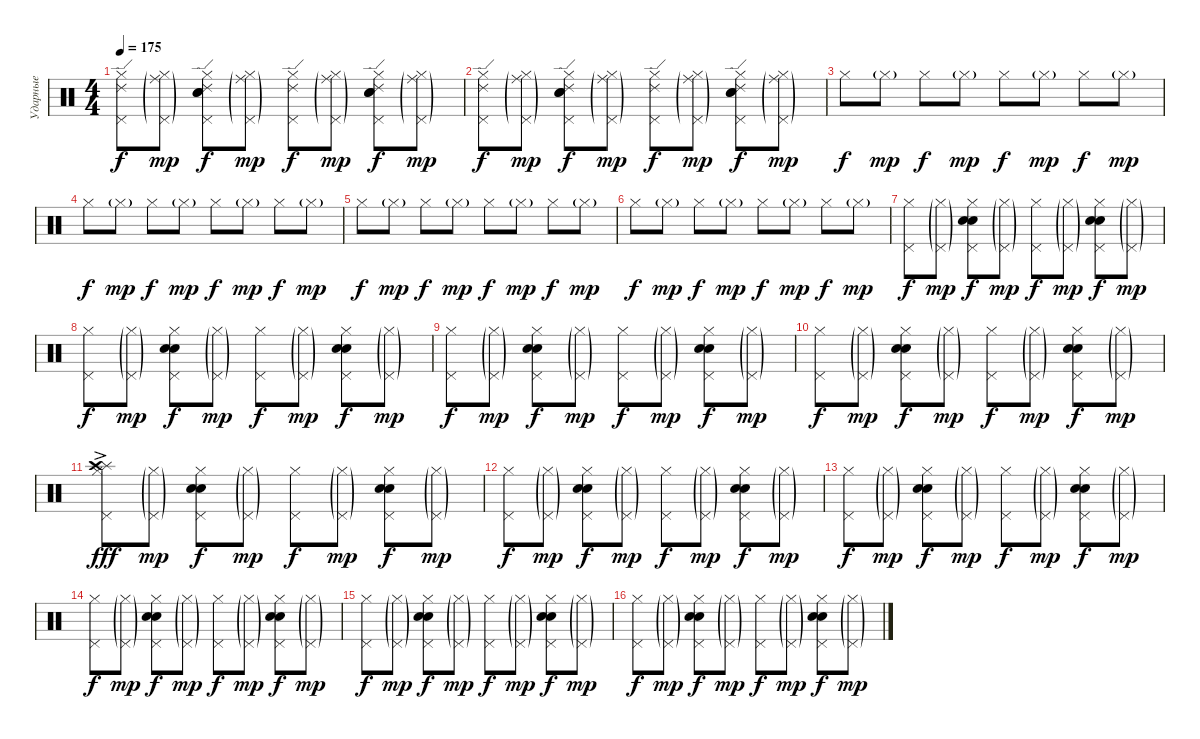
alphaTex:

\track ("Ударные" "Ударные") {instrument percussion}
\staff {score}
\articulation defaults
\ts (4 4)
\tempo 175
\clef neutral
\ks c
("Ride (edge) 2" "Hi-Hat (closed)" "Pedal Hi-Hat (hit)").8{dy f} ("Ride (middle)"{g} "Hi-Hat (closed)"{g} "Pedal Hi-Hat (hit)"{g}).8{dy mp} ("Ride (edge) 2" "Hi-Hat (closed)" "Pedal Hi-Hat (hit)" "Snare (hit) 2" "Electric Snare (hit)").8{dy f} ("Ride (middle)"{g} "Hi-Hat (closed)"{g} "Pedal Hi-Hat (hit)"{g}).8{dy mp} ("Ride (edge) 2" "Hi-Hat (closed)" "Pedal Hi-Hat (hit)").8{dy f} ("Ride (middle)"{g} "Hi-Hat (closed)"{g} "Pedal Hi-Hat (hit)"{g}).8{dy mp} ("Ride (edge) 2" "Hi-Hat (closed)" "Pedal Hi-Hat (hit)" "Snare (hit) 2" "Electric Snare (hit)").8{dy f} ("Ride (middle)"{g} "Hi-Hat (closed)"{g} "Pedal Hi-Hat (hit)"{g}).8{dy mp} |
("Ride (edge) 2" "Hi-Hat (closed)" "Pedal Hi-Hat (hit)").8{dy f} ("Ride (middle)"{g} "Hi-Hat (closed)"{g} "Pedal Hi-Hat (hit)"{g}).8{dy mp} ("Ride (edge) 2" "Hi-Hat (closed)" "Pedal Hi-Hat (hit)" "Snare (hit) 2" "Electric Snare (hit)").8{dy f} ("Ride (middle)"{g} "Hi-Hat (closed)"{g} "Pedal Hi-Hat (hit)"{g}).8{dy mp} ("Ride (edge) 2" "Hi-Hat (closed)" "Pedal Hi-Hat (hit)").8{dy f} ("Ride (middle)"{g} "Hi-Hat (closed)"{g} "Pedal Hi-Hat (hit)"{g}).8{dy mp} ("Ride (edge) 2" "Hi-Hat (closed)" "Pedal Hi-Hat (hit)" "Snare (hit) 2" "Electric Snare (hit)").8{dy f} ("Ride (middle)"{g} "Hi-Hat (closed)"{g} "Pedal Hi-Hat (hit)"{g}).8{dy mp} |
"Hi-Hat (closed)".8{dy f volume 5} "Hi-Hat (closed)"{g}.8{dy mp} "Hi-Hat (closed)".8{dy f} "Hi-Hat (closed)"{g}.8{dy mp} "Hi-Hat (closed)".8{dy f} "Hi-Hat (closed)"{g}.8{dy mp} "Hi-Hat (closed)".8{dy f} "Hi-Hat (closed)"{g}.8{dy mp} |
"Hi-Hat (closed)".8{dy f} "Hi-Hat (closed)"{g}.8{dy mp} "Hi-Hat (closed)".8{dy f} "Hi-Hat (closed)"{g}.8{dy mp} "Hi-Hat (closed)".8{dy f} "Hi-Hat (closed)"{g}.8{dy mp} "Hi-Hat (closed)".8{dy f} "Hi-Hat (closed)"{g}.8{dy mp} |
"Hi-Hat (closed)".8{dy f} "Hi-Hat (closed)"{g}.8{dy mp} "Hi-Hat (closed)".8{dy f} "Hi-Hat (closed)"{g}.8{dy mp} "Hi-Hat (closed)".8{dy f} "Hi-Hat (closed)"{g}.8{dy mp} "Hi-Hat (closed)".8{dy f} "Hi-Hat (closed)"{g}.8{dy mp} |
"Hi-Hat (closed)".8{dy f} "Hi-Hat (closed)"{g}.8{dy mp} "Hi-Hat (closed)".8{dy f} "Hi-Hat (closed)"{g}.8{dy mp} "Hi-Hat (closed)".8{dy f} "Hi-Hat (closed)"{g}.8{dy mp} "Hi-Hat (closed)".8{dy f} "Hi-Hat (closed)"{g}.8{dy mp} |
("Hi-Hat (closed)" "Pedal Hi-Hat (hit)").8{dy f volume 12} ("Hi-Hat (closed)"{g} "Pedal Hi-Hat (hit)"{g}).8{dy mp} ("Hi-Hat (closed)" "Pedal Hi-Hat (hit)" "Snare (hit) 2" "Electric Snare (hit)").8{dy f} ("Hi-Hat (closed)"{g} "Pedal Hi-Hat (hit)"{g}).8{dy mp} ("Hi-Hat (closed)" "Pedal Hi-Hat (hit)").8{dy f} ("Hi-Hat (closed)"{g} "Pedal Hi-Hat (hit)"{g}).8{dy mp} ("Hi-Hat (closed)" "Pedal Hi-Hat (hit)" "Snare (hit) 2" "Electric Snare (hit)").8{dy f} ("Hi-Hat (closed)"{g} "Pedal Hi-Hat (hit)"{g}).8{dy mp} |
("Hi-Hat (closed)" "Pedal Hi-Hat (hit)").8{dy f} ("Hi-Hat (closed)"{g} "Pedal Hi-Hat (hit)"{g}).8{dy mp} ("Hi-Hat (closed)" "Pedal Hi-Hat (hit)" "Snare (hit) 2" "Electric Snare (hit)").8{dy f} ("Hi-Hat (closed)"{g} "Pedal Hi-Hat (hit)"{g}).8{dy mp} ("Hi-Hat (closed)" "Pedal Hi-Hat (hit)").8{dy f} ("Hi-Hat (closed)"{g} "Pedal Hi-Hat (hit)"{g}).8{dy mp} ("Hi-Hat (closed)" "Pedal Hi-Hat (hit)" "Snare (hit) 2" "Electric Snare (hit)").8{dy f} ("Hi-Hat (closed)"{g} "Pedal Hi-Hat (hit)"{g}).8{dy mp} |
("Hi-Hat (closed)" "Pedal Hi-Hat (hit)").8{dy f} ("Hi-Hat (closed)"{g} "Pedal Hi-Hat (hit)"{g}).8{dy mp} ("Hi-Hat (closed)" "Pedal Hi-Hat (hit)" "Snare (hit) 2" "Electric Snare (hit)").8{dy f} ("Hi-Hat (closed)"{g} "Pedal Hi-Hat (hit)"{g}).8{dy mp} ("Hi-Hat (closed)" "Pedal Hi-Hat (hit)").8{dy f} ("Hi-Hat (closed)"{g} "Pedal Hi-Hat (hit)"{g}).8{dy mp} ("Hi-Hat (closed)" "Pedal Hi-Hat (hit)" "Snare (hit) 2" "Electric Snare (hit)").8{dy f} ("Hi-Hat (closed)"{g} "Pedal Hi-Hat (hit)"{g}).8{dy mp} |
("Hi-Hat (closed)" "Pedal Hi-Hat (hit)").8{dy f} ("Hi-Hat (closed)"{g} "Pedal Hi-Hat (hit)"{g}).8{dy mp} ("Hi-Hat (closed)" "Pedal Hi-Hat (hit)" "Snare (hit) 2" "Electric Snare (hit)").8{dy f} ("Hi-Hat (closed)"{g} "Pedal Hi-Hat (hit)"{g}).8{dy mp} ("Hi-Hat (closed)" "Pedal Hi-Hat (hit)").8{dy f} ("Hi-Hat (closed)"{g} "Pedal Hi-Hat (hit)"{g}).8{dy mp} ("Hi-Hat (closed)" "Pedal Hi-Hat (hit)" "Snare (hit) 2" "Electric Snare (hit)").8{dy f} ("Hi-Hat (closed)"{g} "Pedal Hi-Hat (hit)"{g}).8{dy mp} |
("Hi-Hat (closed)" "Pedal Hi-Hat (hit)" "Splash (hit)"{ac} "Crash high (hit)"{ac}).8{dy fff} ("Hi-Hat (closed)"{g} "Pedal Hi-Hat (hit)"{g}).8{dy mp} ("Hi-Hat (closed)" "Pedal Hi-Hat (hit)" "Snare (hit) 2" "Electric Snare (hit)").8{dy f} ("Hi-Hat (closed)"{g} "Pedal Hi-Hat (hit)"{g}).8{dy mp} ("Hi-Hat (closed)" "Pedal Hi-Hat (hit)").8{dy f} ("Hi-Hat (closed)"{g} "Pedal Hi-Hat (hit)"{g}).8{dy mp} ("Hi-Hat (closed)" "Pedal Hi-Hat (hit)" "Snare (hit) 2" "Electric Snare (hit)").8{dy f} ("Hi-Hat (closed)"{g} "Pedal Hi-Hat (hit)"{g}).8{dy mp} |
("Hi-Hat (closed)" "Pedal Hi-Hat (hit)").8{dy f} ("Hi-Hat (closed)"{g} "Pedal Hi-Hat (hit)"{g}).8{dy mp} ("Hi-Hat (closed)" "Pedal Hi-Hat (hit)" "Snare (hit) 2" "Electric Snare (hit)").8{dy f} ("Hi-Hat (closed)"{g} "Pedal Hi-Hat (hit)"{g}).8{dy mp} ("Hi-Hat (closed)" "Pedal Hi-Hat (hit)").8{dy f} ("Hi-Hat (closed)"{g} "Pedal Hi-Hat (hit)"{g}).8{dy mp} ("Hi-Hat (closed)" "Pedal Hi-Hat (hit)" "Snare (hit) 2" "Electric Snare (hit)").8{dy f} ("Hi-Hat (closed)"{g} "Pedal Hi-Hat (hit)"{g}).8{dy mp} |
("Hi-Hat (closed)" "Pedal Hi-Hat (hit)").8{dy f} ("Hi-Hat (closed)"{g} "Pedal Hi-Hat (hit)"{g}).8{dy mp} ("Hi-Hat (closed)" "Pedal Hi-Hat (hit)" "Snare (hit) 2" "Electric Snare (hit)").8{dy f} ("Hi-Hat (closed)"{g} "Pedal Hi-Hat (hit)"{g}).8{dy mp} ("Hi-Hat (closed)" "Pedal Hi-Hat (hit)").8{dy f} ("Hi-Hat (closed)"{g} "Pedal Hi-Hat (hit)"{g}).8{dy mp} ("Hi-Hat (closed)" "Pedal Hi-Hat (hit)" "Snare (hit) 2" "Electric Snare (hit)").8{dy f} ("Hi-Hat (closed)"{g} "Pedal Hi-Hat (hit)"{g}).8{dy mp} |
("Hi-Hat (closed)" "Pedal Hi-Hat (hit)").8{dy f} ("Hi-Hat (closed)"{g} "Pedal Hi-Hat (hit)"{g}).8{dy mp} ("Hi-Hat (closed)" "Pedal Hi-Hat (hit)" "Snare (hit) 2" "Electric Snare (hit)").8{dy f} ("Hi-Hat (closed)"{g} "Pedal Hi-Hat (hit)"{g}).8{dy mp} ("Hi-Hat (closed)" "Pedal Hi-Hat (hit)").8{dy f} ("Hi-Hat (closed)"{g} "Pedal Hi-Hat (hit)"{g}).8{dy mp} ("Hi-Hat (closed)" "Pedal Hi-Hat (hit)" "Snare (hit) 2" "Electric Snare (hit)").8{dy f} ("Hi-Hat (closed)"{g} "Pedal Hi-Hat (hit)"{g}).8{dy mp} |
("Hi-Hat (closed)" "Pedal Hi-Hat (hit)").8{dy f} ("Hi-Hat (closed)"{g} "Pedal Hi-Hat (hit)"{g}).8{dy mp} ("Hi-Hat (closed)" "Pedal Hi-Hat (hit)" "Snare (hit) 2" "Electric Snare (hit)").8{dy f} ("Hi-Hat (closed)"{g} "Pedal Hi-Hat (hit)"{g}).8{dy mp} ("Hi-Hat (closed)" "Pedal Hi-Hat (hit)").8{dy f} ("Hi-Hat (closed)"{g} "Pedal Hi-Hat (hit)"{g}).8{dy mp} ("Hi-Hat (closed)" "Pedal Hi-Hat (hit)" "Snare (hit) 2" "Electric Snare (hit)").8{dy f} ("Hi-Hat (closed)"{g} "Pedal Hi-Hat (hit)"{g}).8{dy mp} |
("Hi-Hat (closed)" "Pedal Hi-Hat (hit)").8{dy f} ("Hi-Hat (closed)"{g} "Pedal Hi-Hat (hit)"{g}).8{dy mp} ("Hi-Hat (closed)" "Pedal Hi-Hat (hit)" "Snare (hit) 2" "Electric Snare (hit)").8{dy f} ("Hi-Hat (closed)"{g} "Pedal Hi-Hat (hit)"{g}).8{dy mp} ("Hi-Hat (closed)" "Pedal Hi-Hat (hit)").8{dy f} ("Hi-Hat (closed)"{g} "Pedal Hi-Hat (hit)"{g}).8{dy mp} ("Hi-Hat (closed)" "Pedal Hi-Hat (hit)" "Snare (hit) 2" "Electric Snare (hit)").8{dy f} ("Hi-Hat (closed)"{g} "Pedal Hi-Hat (hit)"{g}).8{dy mp}
